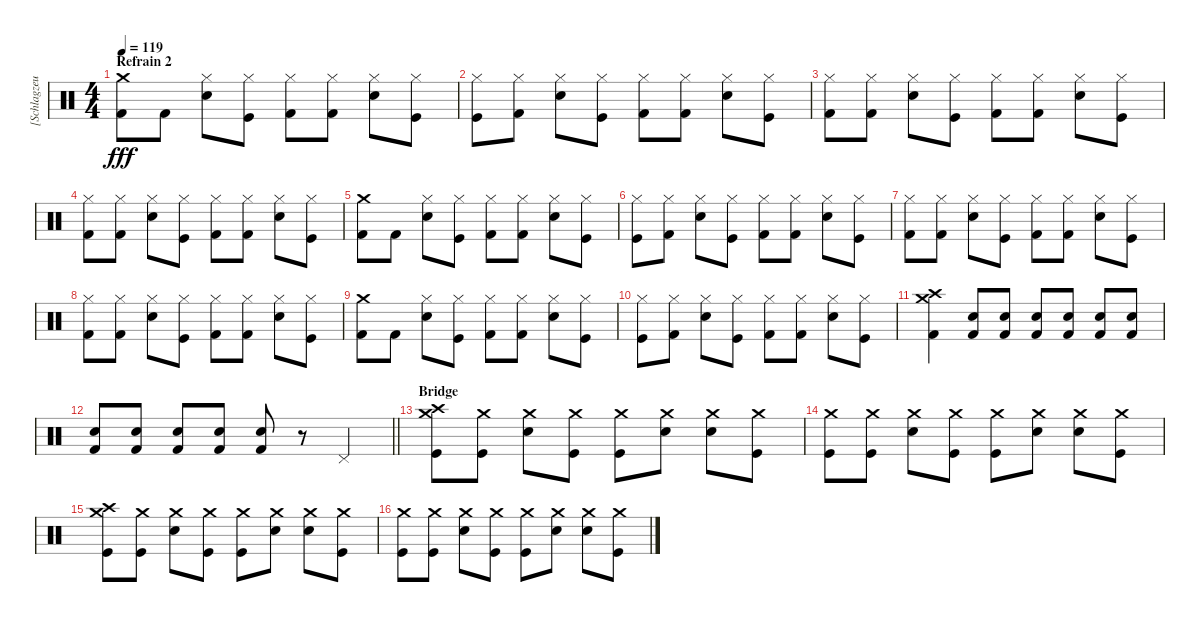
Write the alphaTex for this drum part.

\track ("[Schlagzeug]" "[Schlagzeu") {instrument percussion}
\staff {score}
\articulation defaults
\ts (4 4)
\section ("" "Refrain 2")
\tempo 119
\clef neutral
\ks c
("Crash medium (hit)" "Kick (hit) 2").8{dy fff} "Kick (hit) 2".8 ("Hi-Hat (closed)" "Electric Snare (hit)").8 ("Hi-Hat (closed)" "Kick (hit)").8 ("Hi-Hat (closed)" "Kick (hit) 2").8 ("Hi-Hat (closed)" "Kick (hit) 2").8 ("Hi-Hat (closed)" "Electric Snare (hit)").8 ("Hi-Hat (closed)" "Kick (hit)").8 |
("Hi-Hat (closed)" "Kick (hit)").8 ("Hi-Hat (closed)" "Kick (hit) 2").8 ("Hi-Hat (closed)" "Electric Snare (hit)").8 ("Hi-Hat (closed)" "Kick (hit)").8 ("Hi-Hat (closed)" "Kick (hit) 2").8 ("Hi-Hat (closed)" "Kick (hit) 2").8 ("Hi-Hat (closed)" "Electric Snare (hit)").8 ("Hi-Hat (closed)" "Kick (hit)").8 |
("Hi-Hat (closed)" "Kick (hit) 2").8 ("Hi-Hat (closed)" "Kick (hit) 2").8 ("Hi-Hat (closed)" "Electric Snare (hit)").8 ("Hi-Hat (closed)" "Kick (hit)").8 ("Hi-Hat (closed)" "Kick (hit) 2").8 ("Hi-Hat (closed)" "Kick (hit) 2").8 ("Hi-Hat (closed)" "Electric Snare (hit)").8 ("Hi-Hat (closed)" "Kick (hit)").8 |
("Hi-Hat (closed)" "Kick (hit) 2").8 ("Hi-Hat (closed)" "Kick (hit) 2").8 ("Hi-Hat (closed)" "Electric Snare (hit)").8 ("Hi-Hat (closed)" "Kick (hit)").8 ("Hi-Hat (closed)" "Kick (hit) 2").8 ("Hi-Hat (closed)" "Kick (hit) 2").8 ("Hi-Hat (closed)" "Electric Snare (hit)").8 ("Hi-Hat (closed)" "Kick (hit)").8 |
("Crash medium (hit)" "Kick (hit) 2").8 "Kick (hit) 2".8 ("Hi-Hat (closed)" "Electric Snare (hit)").8 ("Hi-Hat (closed)" "Kick (hit)").8 ("Hi-Hat (closed)" "Kick (hit) 2").8 ("Hi-Hat (closed)" "Kick (hit) 2").8 ("Hi-Hat (closed)" "Electric Snare (hit)").8 ("Hi-Hat (closed)" "Kick (hit)").8 |
("Hi-Hat (closed)" "Kick (hit)").8 ("Hi-Hat (closed)" "Kick (hit) 2").8 ("Hi-Hat (closed)" "Electric Snare (hit)").8 ("Hi-Hat (closed)" "Kick (hit)").8 ("Hi-Hat (closed)" "Kick (hit) 2").8 ("Hi-Hat (closed)" "Kick (hit) 2").8 ("Hi-Hat (closed)" "Electric Snare (hit)").8 ("Hi-Hat (closed)" "Kick (hit)").8 |
("Hi-Hat (closed)" "Kick (hit) 2").8 ("Hi-Hat (closed)" "Kick (hit) 2").8 ("Hi-Hat (closed)" "Electric Snare (hit)").8 ("Hi-Hat (closed)" "Kick (hit)").8 ("Hi-Hat (closed)" "Kick (hit) 2").8 ("Hi-Hat (closed)" "Kick (hit) 2").8 ("Hi-Hat (closed)" "Electric Snare (hit)").8 ("Hi-Hat (closed)" "Kick (hit)").8 |
("Hi-Hat (closed)" "Kick (hit) 2").8 ("Hi-Hat (closed)" "Kick (hit) 2").8 ("Hi-Hat (closed)" "Electric Snare (hit)").8 ("Hi-Hat (closed)" "Kick (hit)").8 ("Hi-Hat (closed)" "Kick (hit) 2").8 ("Hi-Hat (closed)" "Kick (hit) 2").8 ("Hi-Hat (closed)" "Electric Snare (hit)").8 ("Hi-Hat (closed)" "Kick (hit)").8 |
("Crash medium (hit)" "Kick (hit) 2").8 "Kick (hit) 2".8 ("Hi-Hat (closed)" "Electric Snare (hit)").8 ("Hi-Hat (closed)" "Kick (hit)").8 ("Hi-Hat (closed)" "Kick (hit) 2").8 ("Hi-Hat (closed)" "Kick (hit) 2").8 ("Hi-Hat (closed)" "Electric Snare (hit)").8 ("Hi-Hat (closed)" "Kick (hit)").8 |
("Hi-Hat (closed)" "Kick (hit)").8 ("Hi-Hat (closed)" "Kick (hit) 2").8 ("Hi-Hat (closed)" "Electric Snare (hit)").8 ("Hi-Hat (closed)" "Kick (hit)").8 ("Hi-Hat (closed)" "Kick (hit) 2").8 ("Hi-Hat (closed)" "Kick (hit) 2").8 ("Hi-Hat (closed)" "Electric Snare (hit)").8 ("Hi-Hat (closed)" "Kick (hit)").8 |
("Crash medium (hit)" "Crash high (hit)" "Kick (hit) 2").4 ("Electric Snare (hit)" "Kick (hit) 2").8 ("Electric Snare (hit)" "Kick (hit) 2").8 ("Electric Snare (hit)" "Kick (hit) 2").8 ("Electric Snare (hit)" "Kick (hit) 2").8 ("Electric Snare (hit)" "Kick (hit) 2").8 ("Electric Snare (hit)" "Kick (hit) 2").8 |
\barLineRight lightlight
("Electric Snare (hit)" "Kick (hit) 2").8 ("Electric Snare (hit)" "Kick (hit) 2").8 ("Electric Snare (hit)" "Kick (hit) 2").8 ("Electric Snare (hit)" "Kick (hit) 2").8 ("Electric Snare (hit)" "Kick (hit) 2").8 r.8 "Pedal Hi-Hat (hit)".4 |
\section ("" "Bridge")
("Crash medium (hit)" "Crash high (hit)" "Kick (hit)").8 ("Crash medium (hit)" "Kick (hit)").8 ("Crash medium (hit)" "Electric Snare (hit)").8 ("Crash medium (hit)" "Kick (hit)").8 ("Crash medium (hit)" "Kick (hit)").8 ("Crash medium (hit)" "Electric Snare (hit)").8 ("Crash medium (hit)" "Electric Snare (hit)").8 ("Crash medium (hit)" "Kick (hit)").8 |
("Crash medium (hit)" "Kick (hit)").8 ("Crash medium (hit)" "Kick (hit)").8 ("Crash medium (hit)" "Electric Snare (hit)").8 ("Crash medium (hit)" "Kick (hit)").8 ("Crash medium (hit)" "Kick (hit)").8 ("Crash medium (hit)" "Electric Snare (hit)").8 ("Crash medium (hit)" "Electric Snare (hit)").8 ("Crash medium (hit)" "Kick (hit)").8 |
("Crash medium (hit)" "Crash high (hit)" "Kick (hit)").8 ("Crash medium (hit)" "Kick (hit)").8 ("Crash medium (hit)" "Electric Snare (hit)").8 ("Crash medium (hit)" "Kick (hit)").8 ("Crash medium (hit)" "Kick (hit)").8 ("Crash medium (hit)" "Electric Snare (hit)").8 ("Crash medium (hit)" "Electric Snare (hit)").8 ("Crash medium (hit)" "Kick (hit)").8 |
("Crash medium (hit)" "Kick (hit)").8 ("Crash medium (hit)" "Kick (hit)").8 ("Crash medium (hit)" "Electric Snare (hit)").8 ("Crash medium (hit)" "Kick (hit)").8 ("Crash medium (hit)" "Kick (hit)").8 ("Crash medium (hit)" "Electric Snare (hit)").8 ("Crash medium (hit)" "Electric Snare (hit)").8 ("Crash medium (hit)" "Kick (hit)").8
